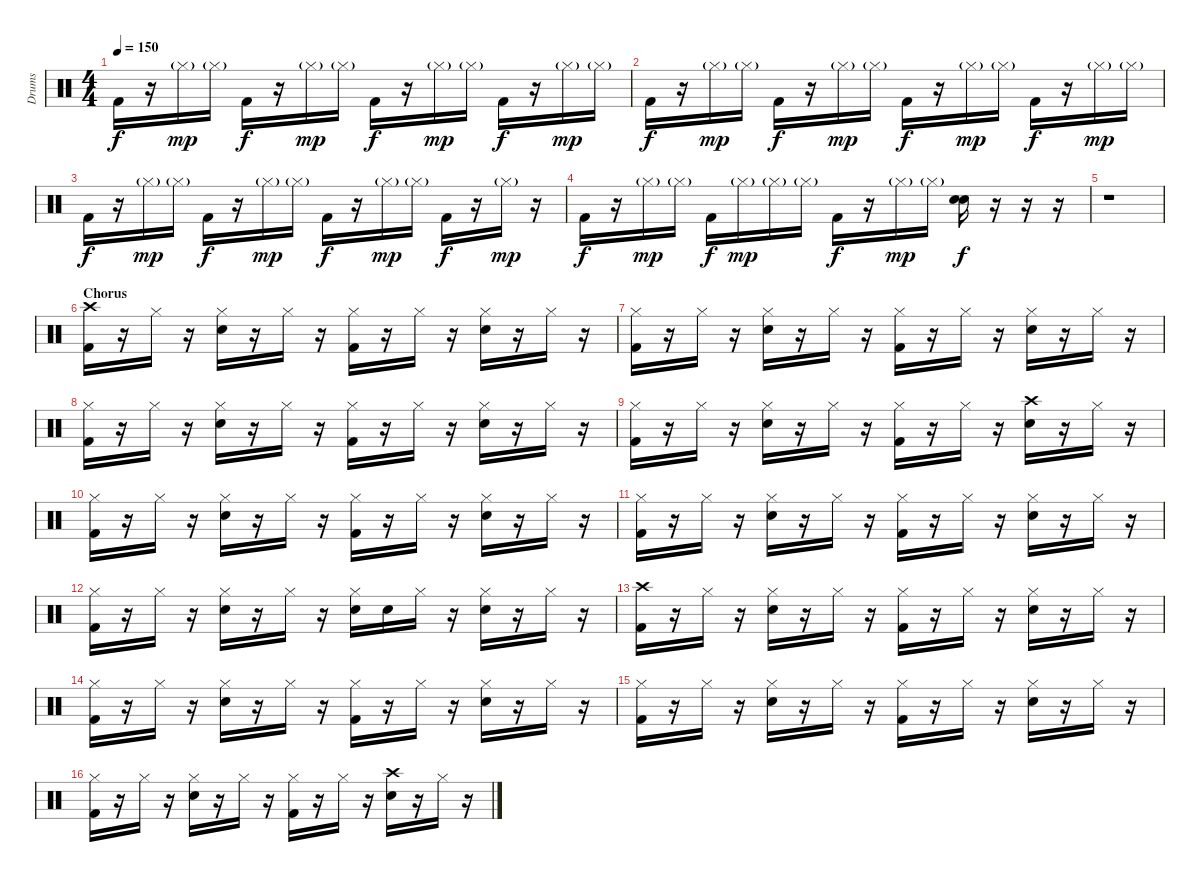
\track ("Drums" "Drums") {instrument percussion}
\staff {score}
\articulation defaults
\ts (4 4)
\tempo 150
\clef neutral
\ks c "Kick (hit) 2".16{dy f}
r.16 "Hi-Hat (closed)"{g}.16{dy mp} "Hi-Hat (closed)"{g}.16 "Kick (hit) 2".16{dy f} r.16 "Hi-Hat (closed)"{g}.16{dy mp} "Hi-Hat (closed)"{g}.16 "Kick (hit) 2".16{dy f} r.16 "Hi-Hat (closed)"{g}.16{dy mp} "Hi-Hat (closed)"{g}.16 "Kick (hit) 2".16{dy f} r.16 "Hi-Hat (closed)"{g}.16{dy mp} "Hi-Hat (closed)"{g}.16 |
"Kick (hit) 2".16{dy f} r.16 "Hi-Hat (closed)"{g}.16{dy mp} "Hi-Hat (closed)"{g}.16 "Kick (hit) 2".16{dy f} r.16 "Hi-Hat (closed)"{g}.16{dy mp} "Hi-Hat (closed)"{g}.16 "Kick (hit) 2".16{dy f} r.16 "Hi-Hat (closed)"{g}.16{dy mp} "Hi-Hat (closed)"{g}.16 "Kick (hit) 2".16{dy f} r.16 "Hi-Hat (closed)"{g}.16{dy mp} "Hi-Hat (closed)"{g}.16 |
"Kick (hit) 2".16{dy f} r.16 "Hi-Hat (closed)"{g}.16{dy mp} "Hi-Hat (closed)"{g}.16 "Kick (hit) 2".16{dy f} r.16 "Hi-Hat (closed)"{g}.16{dy mp} "Hi-Hat (closed)"{g}.16 "Kick (hit) 2".16{dy f} r.16 "Hi-Hat (closed)"{g}.16{dy mp} "Hi-Hat (closed)"{g}.16 "Kick (hit) 2".16{dy f} r.16 "Hi-Hat (closed)"{g}.16{dy mp} r.16 |
"Kick (hit) 2".16{dy f} r.16 "Hi-Hat (closed)"{g}.16{dy mp} "Hi-Hat (closed)"{g}.16 "Kick (hit) 2".16{dy f} "Hi-Hat (closed)"{g}.16{dy mp} "Hi-Hat (closed)"{g}.16 "Hi-Hat (closed)"{g}.16 "Kick (hit) 2".16{dy f} r.16 "Hi-Hat (closed)"{g}.16{dy mp} "Hi-Hat (closed)"{g}.16 ("Electric Snare (hit)" "Snare (hit) 2").16{dy f} r.16 r.16 r.16 |
r.1 |
\section ("" "Chorus")
("Crash high (hit)" "Kick (hit) 2").16 r.16 "Hi-Hat (closed)".16 r.16 ("Hi-Hat (closed)" "Electric Snare (hit)").16 r.16 "Hi-Hat (closed)".16 r.16 ("Hi-Hat (closed)" "Kick (hit) 2").16 r.16 "Hi-Hat (closed)".16 r.16 ("Hi-Hat (closed)" "Electric Snare (hit)").16 r.16 "Hi-Hat (closed)".16 r.16 |
("Hi-Hat (closed)" "Kick (hit) 2").16 r.16 "Hi-Hat (closed)".16 r.16 ("Hi-Hat (closed)" "Electric Snare (hit)").16 r.16 "Hi-Hat (closed)".16 r.16 ("Hi-Hat (closed)" "Kick (hit) 2").16 r.16 "Hi-Hat (closed)".16 r.16 ("Hi-Hat (closed)" "Electric Snare (hit)").16 r.16 "Hi-Hat (closed)".16 r.16 |
("Hi-Hat (closed)" "Kick (hit) 2").16 r.16 "Hi-Hat (closed)".16 r.16 ("Hi-Hat (closed)" "Electric Snare (hit)").16 r.16 "Hi-Hat (closed)".16 r.16 ("Hi-Hat (closed)" "Kick (hit) 2").16 r.16 "Hi-Hat (closed)".16 r.16 ("Hi-Hat (closed)" "Electric Snare (hit)").16 r.16 "Hi-Hat (closed)".16 r.16 |
("Hi-Hat (closed)" "Kick (hit) 2").16 r.16 "Hi-Hat (closed)".16 r.16 ("Hi-Hat (closed)" "Electric Snare (hit)").16 r.16 "Hi-Hat (closed)".16 r.16 ("Hi-Hat (closed)" "Kick (hit) 2").16 r.16 "Hi-Hat (closed)".16 r.16 ("Crash high (hit)" "Electric Snare (hit)").16 r.16 "Hi-Hat (closed)".16 r.16 |
("Hi-Hat (closed)" "Kick (hit) 2").16 r.16 "Hi-Hat (closed)".16 r.16 ("Hi-Hat (closed)" "Electric Snare (hit)").16 r.16 "Hi-Hat (closed)".16 r.16 ("Hi-Hat (closed)" "Kick (hit) 2").16 r.16 "Hi-Hat (closed)".16 r.16 ("Hi-Hat (closed)" "Electric Snare (hit)").16 r.16 "Hi-Hat (closed)".16 r.16 |
("Hi-Hat (closed)" "Kick (hit) 2").16 r.16 "Hi-Hat (closed)".16 r.16 ("Hi-Hat (closed)" "Electric Snare (hit)").16 r.16 "Hi-Hat (closed)".16 r.16 ("Hi-Hat (closed)" "Kick (hit) 2").16 r.16 "Hi-Hat (closed)".16 r.16 ("Hi-Hat (closed)" "Electric Snare (hit)").16 r.16 "Hi-Hat (closed)".16 r.16 |
("Hi-Hat (closed)" "Kick (hit) 2").16 r.16 "Hi-Hat (closed)".16 r.16 ("Hi-Hat (closed)" "Electric Snare (hit)").16 r.16 "Hi-Hat (closed)".16 r.16 ("Hi-Hat (closed)" "Electric Snare (hit)").16 "Electric Snare (hit)".16 "Hi-Hat (closed)".16 r.16 ("Hi-Hat (closed)" "Electric Snare (hit)").16 r.16 "Hi-Hat (closed)".16 r.16 |
("Crash high (hit)" "Kick (hit) 2").16 r.16 "Hi-Hat (closed)".16 r.16 ("Hi-Hat (closed)" "Electric Snare (hit)").16 r.16 "Hi-Hat (closed)".16 r.16 ("Hi-Hat (closed)" "Kick (hit) 2").16 r.16 "Hi-Hat (closed)".16 r.16 ("Hi-Hat (closed)" "Electric Snare (hit)").16 r.16 "Hi-Hat (closed)".16 r.16 |
("Hi-Hat (closed)" "Kick (hit) 2").16 r.16 "Hi-Hat (closed)".16 r.16 ("Hi-Hat (closed)" "Electric Snare (hit)").16 r.16 "Hi-Hat (closed)".16 r.16 ("Hi-Hat (closed)" "Kick (hit) 2").16 r.16 "Hi-Hat (closed)".16 r.16 ("Hi-Hat (closed)" "Electric Snare (hit)").16 r.16 "Hi-Hat (closed)".16 r.16 |
("Hi-Hat (closed)" "Kick (hit) 2").16 r.16 "Hi-Hat (closed)".16 r.16 ("Hi-Hat (closed)" "Electric Snare (hit)").16 r.16 "Hi-Hat (closed)".16 r.16 ("Hi-Hat (closed)" "Kick (hit) 2").16 r.16 "Hi-Hat (closed)".16 r.16 ("Hi-Hat (closed)" "Electric Snare (hit)").16 r.16 "Hi-Hat (closed)".16 r.16 |
("Hi-Hat (closed)" "Kick (hit) 2").16 r.16 "Hi-Hat (closed)".16 r.16 ("Hi-Hat (closed)" "Electric Snare (hit)").16 r.16 "Hi-Hat (closed)".16 r.16 ("Hi-Hat (closed)" "Kick (hit) 2").16 r.16 "Hi-Hat (closed)".16 r.16 ("Crash high (hit)" "Electric Snare (hit)").16 r.16 "Hi-Hat (closed)".16 r.16
